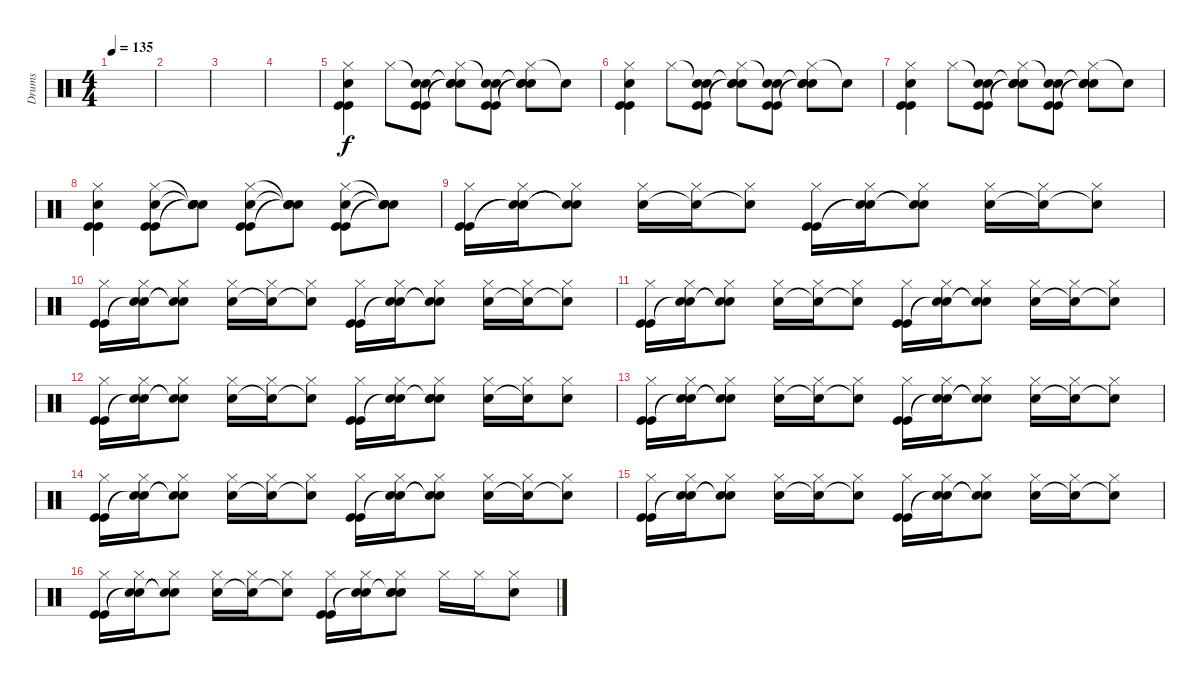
\track ("Drums" "Drums") {instrument percussion}
\staff {score}
\articulation defaults
\ts (4 4)
\tempo 135
\clef neutral
\ks c
|
|
|
|
("Hi-Hat (closed)" "Snare (hit) 2" "Kick (hit)" "Kick (hit)").4 "Hi-Hat (closed)".8 ("Snare (hit)"{t} "Snare (hit) 2" "Kick (hit)" "Kick (hit)").8 ("Hi-Hat (closed)" "Snare (hit)"{t} "Snare (hit)"{t} "Snare (hit)"{t}).8 ("Snare (hit)"{t} "Snare (hit) 2" "Kick (hit)" "Kick (hit)").8 ("Hi-Hat (closed)" "Snare (hit)"{t} "Snare (hit)"{t} "Snare (hit)"{t}).8 "Snare (hit)"{t}.8 |
("Hi-Hat (closed)" "Snare (hit) 2" "Kick (hit)" "Kick (hit)").4 "Hi-Hat (closed)".8 ("Snare (hit)"{t} "Snare (hit) 2" "Kick (hit)" "Kick (hit)").8 ("Hi-Hat (closed)" "Snare (hit)"{t} "Snare (hit)"{t} "Snare (hit)"{t}).8 ("Snare (hit)"{t} "Snare (hit) 2" "Kick (hit)" "Kick (hit)").8 ("Hi-Hat (closed)" "Snare (hit)"{t} "Snare (hit)"{t} "Snare (hit)"{t}).8 "Snare (hit)"{t}.8 |
("Hi-Hat (closed)" "Snare (hit) 2" "Kick (hit)" "Kick (hit)").4 "Hi-Hat (closed)".8 ("Snare (hit)"{t} "Snare (hit) 2" "Kick (hit)" "Kick (hit)").8 ("Hi-Hat (closed)" "Snare (hit)"{t} "Snare (hit)"{t} "Snare (hit)"{t}).8 ("Snare (hit)"{t} "Snare (hit) 2" "Kick (hit)" "Kick (hit)").8 ("Hi-Hat (closed)" "Snare (hit)"{t} "Snare (hit)"{t} "Snare (hit)"{t}).8 "Snare (hit)"{t}.8 |
("Hi-Hat (closed)" "Snare (hit) 2" "Kick (hit)" "Kick (hit)").4 ("Hi-Hat (closed)" "Snare (hit) 2" "Kick (hit)" "Kick (hit)").8 ("Snare (hit)"{t} "Snare (hit) 2"{t} "Snare (hit)"{t} "Snare (hit)"{t}).8 ("Hi-Hat (closed)" "Snare (hit) 2" "Kick (hit)" "Kick (hit)").8 ("Snare (hit)"{t} "Snare (hit) 2"{t} "Snare (hit)"{t} "Snare (hit)"{t}).8 ("Hi-Hat (closed)" "Snare (hit) 2" "Kick (hit)" "Kick (hit)").8 ("Snare (hit)"{t} "Snare (hit)"{t} "Snare (hit)"{t} "Snare (hit)"{t}).8 |
("Hi-Hat (closed)" "Kick (hit)" "Kick (hit)").16 ("Hi-Hat (closed)" "Snare (hit)"{t} "Snare (hit)"{t}).16 ("Hi-Hat (closed)" "Snare (hit)"{t} "Snare (hit)"{t}).8 ("Hi-Hat (closed)" "Snare (hit) 2").16 ("Hi-Hat (closed)" "Snare (hit)"{t}).16 ("Hi-Hat (closed)" "Snare (hit) 2"{t}).8 ("Hi-Hat (closed)" "Kick (hit)" "Kick (hit)").16 ("Hi-Hat (closed)" "Snare (hit)"{t} "Snare (hit)"{t}).16 ("Hi-Hat (closed)" "Snare (hit)"{t} "Snare (hit)"{t}).8 ("Hi-Hat (closed)" "Snare (hit) 2").16 ("Hi-Hat (closed)" "Snare (hit) 2"{t}).16 ("Hi-Hat (closed)" "Snare (hit)"{t}).8 |
("Hi-Hat (closed)" "Kick (hit)" "Kick (hit)").16 ("Hi-Hat (closed)" "Snare (hit)"{t} "Snare (hit)"{t}).16 ("Hi-Hat (closed)" "Snare (hit)"{t} "Snare (hit)"{t}).8 ("Hi-Hat (closed)" "Snare (hit) 2").16 ("Hi-Hat (closed)" "Snare (hit)"{t}).16 ("Hi-Hat (closed)" "Snare (hit) 2"{t}).8 ("Hi-Hat (closed)" "Kick (hit)" "Kick (hit)").16 ("Hi-Hat (closed)" "Snare (hit)"{t} "Snare (hit)"{t}).16 ("Hi-Hat (closed)" "Snare (hit)"{t} "Snare (hit)"{t}).8 ("Hi-Hat (closed)" "Snare (hit) 2").16 ("Hi-Hat (closed)" "Snare (hit) 2"{t}).16 ("Hi-Hat (closed)" "Snare (hit)"{t}).8 |
("Hi-Hat (closed)" "Kick (hit)" "Kick (hit)").16 ("Hi-Hat (closed)" "Snare (hit)"{t} "Snare (hit)"{t}).16 ("Hi-Hat (closed)" "Snare (hit)"{t} "Snare (hit)"{t}).8 ("Hi-Hat (closed)" "Snare (hit) 2").16 ("Hi-Hat (closed)" "Snare (hit)"{t}).16 ("Hi-Hat (closed)" "Snare (hit) 2"{t}).8 ("Hi-Hat (closed)" "Kick (hit)" "Kick (hit)").16 ("Hi-Hat (closed)" "Snare (hit)"{t} "Snare (hit)"{t}).16 ("Hi-Hat (closed)" "Snare (hit)"{t} "Snare (hit)"{t}).8 ("Hi-Hat (closed)" "Snare (hit) 2").16 ("Hi-Hat (closed)" "Snare (hit) 2"{t}).16 ("Hi-Hat (closed)" "Snare (hit)"{t}).8 |
("Hi-Hat (closed)" "Kick (hit)" "Kick (hit)").16 ("Hi-Hat (closed)" "Snare (hit)"{t} "Snare (hit)"{t}).16 ("Hi-Hat (closed)" "Snare (hit)"{t} "Snare (hit)"{t}).8 ("Hi-Hat (closed)" "Snare (hit) 2").16 ("Hi-Hat (closed)" "Snare (hit)"{t}).16 ("Hi-Hat (closed)" "Snare (hit) 2"{t}).8 ("Hi-Hat (closed)" "Kick (hit)" "Kick (hit)").16 ("Hi-Hat (closed)" "Snare (hit)"{t} "Snare (hit)"{t}).16 ("Hi-Hat (closed)" "Snare (hit) 2" "Snare (hit)"{t} "Snare (hit)").8 ("Hi-Hat (closed)" "Snare (hit) 2").16 ("Hi-Hat (closed)" "Snare (hit) 2"{t}).16 ("Hi-Hat (closed)" "Snare (hit) 2").8 |
("Hi-Hat (closed)" "Kick (hit)" "Kick (hit)").16 ("Hi-Hat (closed)" "Snare (hit)"{t} "Snare (hit)"{t}).16 ("Hi-Hat (closed)" "Snare (hit)"{t} "Snare (hit)"{t}).8 ("Hi-Hat (closed)" "Snare (hit) 2").16 ("Hi-Hat (closed)" "Snare (hit)"{t}).16 ("Hi-Hat (closed)" "Snare (hit) 2"{t}).8 ("Hi-Hat (closed)" "Kick (hit)" "Kick (hit)").16 ("Hi-Hat (closed)" "Snare (hit)"{t} "Snare (hit)"{t}).16 ("Hi-Hat (closed)" "Snare (hit)"{t} "Snare (hit)"{t}).8 ("Hi-Hat (closed)" "Snare (hit) 2").16 ("Hi-Hat (closed)" "Snare (hit) 2"{t}).16 ("Hi-Hat (closed)" "Snare (hit)"{t}).8 |
("Hi-Hat (closed)" "Kick (hit)" "Kick (hit)").16 ("Hi-Hat (closed)" "Snare (hit)"{t} "Snare (hit)"{t}).16 ("Hi-Hat (closed)" "Snare (hit)"{t} "Snare (hit)"{t}).8 ("Hi-Hat (closed)" "Snare (hit) 2").16 ("Hi-Hat (closed)" "Snare (hit)"{t}).16 ("Hi-Hat (closed)" "Snare (hit) 2"{t}).8 ("Hi-Hat (closed)" "Kick (hit)" "Kick (hit)").16 ("Hi-Hat (closed)" "Snare (hit)"{t} "Snare (hit)"{t}).16 ("Hi-Hat (closed)" "Snare (hit)"{t} "Snare (hit)"{t}).8 ("Hi-Hat (closed)" "Snare (hit) 2").16 ("Hi-Hat (closed)" "Snare (hit) 2"{t}).16 ("Hi-Hat (closed)" "Snare (hit)"{t}).8 |
("Hi-Hat (closed)" "Kick (hit)" "Kick (hit)").16 ("Hi-Hat (closed)" "Snare (hit)"{t} "Snare (hit)"{t}).16 ("Hi-Hat (closed)" "Snare (hit)"{t} "Snare (hit)"{t}).8 ("Hi-Hat (closed)" "Snare (hit) 2").16 ("Hi-Hat (closed)" "Snare (hit)"{t}).16 ("Hi-Hat (closed)" "Snare (hit) 2"{t}).8 ("Hi-Hat (closed)" "Kick (hit)" "Kick (hit)").16 ("Hi-Hat (closed)" "Snare (hit)"{t} "Snare (hit)"{t}).16 ("Hi-Hat (closed)" "Snare (hit)"{t} "Snare (hit)"{t}).8 ("Hi-Hat (closed)" "Snare (hit) 2").16 ("Hi-Hat (closed)" "Snare (hit) 2"{t}).16 ("Hi-Hat (closed)" "Snare (hit)"{t}).8 |
("Hi-Hat (closed)" "Kick (hit)" "Kick (hit)").16 ("Hi-Hat (closed)" "Snare (hit)"{t} "Snare (hit)"{t}).16 ("Hi-Hat (closed)" "Snare (hit)"{t} "Snare (hit)"{t}).8 ("Hi-Hat (closed)" "Snare (hit) 2").16 ("Hi-Hat (closed)" "Snare (hit)"{t}).16 ("Hi-Hat (closed)" "Snare (hit) 2"{t}).8 ("Hi-Hat (closed)" "Kick (hit)" "Kick (hit)").16 ("Hi-Hat (closed)" "Snare (hit)"{t} "Snare (hit)"{t}).16 ("Hi-Hat (closed)" "Snare (hit) 2" "Snare (hit)"{t} "Snare (hit)").8 "Hi-Hat (closed)".16 "Hi-Hat (closed)".16 ("Hi-Hat (closed)" "Snare (hit) 2").8
